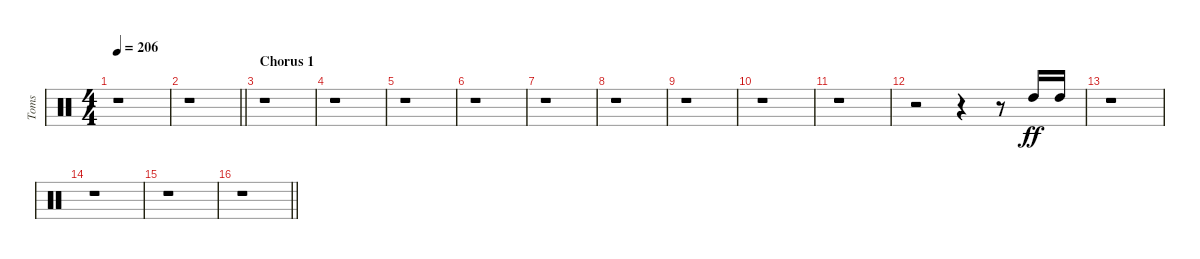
\track ("Toms" "Toms") {instrument percussion}
\staff {score}
\articulation defaults
\ts (4 4)
\tempo 206
\clef neutral
\ks c
r.1{dy ff} |
\barLineRight lightlight
r.1 |
\section ("" "Chorus 1")
r.1 |
r.1 |
r.1 |
r.1 |
r.1 |
r.1 |
r.1 |
r.1 |
r.1 |
r.2 r.4 r.8 "High Tom (hit)".16{beam Up} "High Tom (hit)".16{beam Up} |
r.1 |
r.1 |
r.1 |
\barLineRight lightlight
r.1
